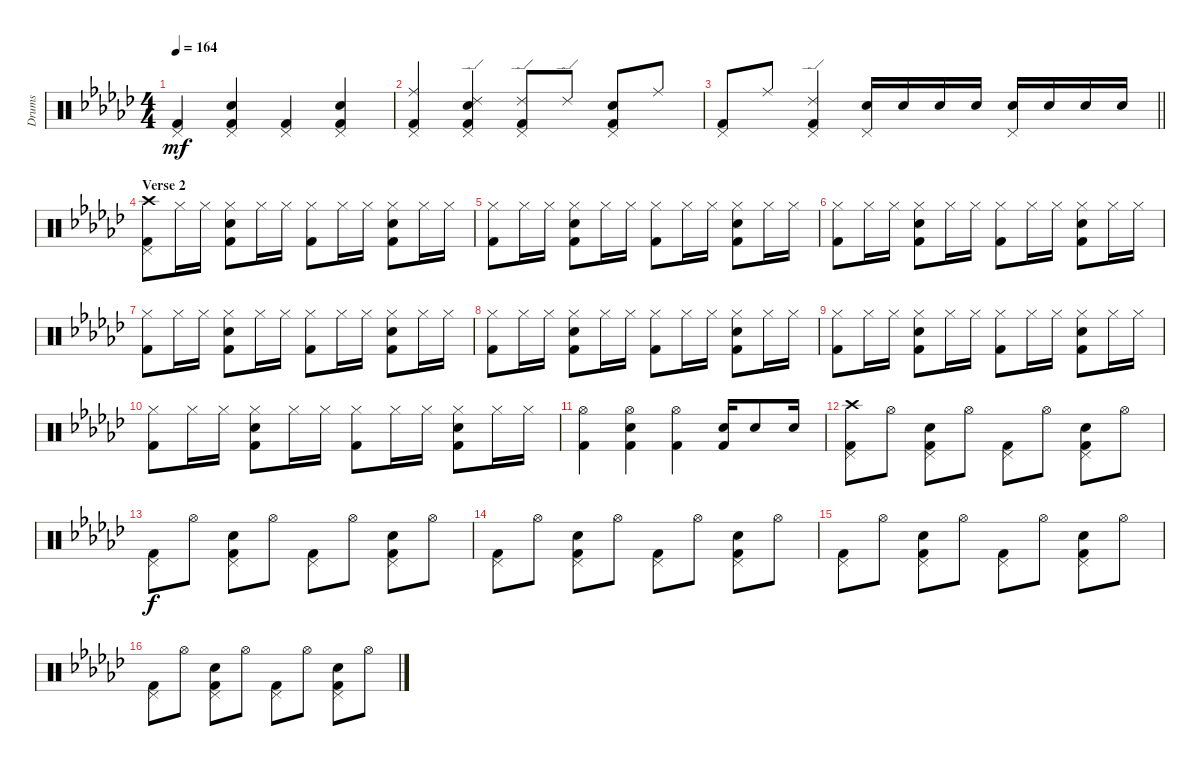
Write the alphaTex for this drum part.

\track ("Drums" "Drums") {instrument percussion}
\staff {score}
\articulation defaults
\ts (4 4)
\tempo 164
\clef neutral
\ks gb
("Pedal Hi-Hat (hit)" "Kick (hit) 2").4{dy mf} ("Snare (hit) 2" "Pedal Hi-Hat (hit)" "Kick (hit) 2").4 ("Pedal Hi-Hat (hit)" "Kick (hit) 2").4 ("Snare (hit) 2" "Pedal Hi-Hat (hit)" "Kick (hit) 2").4 |
("Ride (middle)" "Pedal Hi-Hat (hit)" "Kick (hit) 2").4 ("Ride (edge) 2" "Snare (hit) 2" "Pedal Hi-Hat (hit)" "Kick (hit) 2").4 ("Ride (edge) 2" "Pedal Hi-Hat (hit)" "Kick (hit) 2").8 "Ride (edge) 2".8 ("Snare (hit) 2" "Pedal Hi-Hat (hit)" "Kick (hit) 2").8 "Ride (middle)".8 |
\barLineRight lightlight
("Pedal Hi-Hat (hit)" "Kick (hit) 2").8 "Ride (middle)".8 ("Ride (edge) 2" "Pedal Hi-Hat (hit)" "Kick (hit) 2").4 ("Snare (hit) 2" "Pedal Hi-Hat (hit)").16 "Snare (hit) 2".16 "Snare (hit) 2".16 "Snare (hit) 2".16 ("Snare (hit) 2" "Pedal Hi-Hat (hit)").16 "Snare (hit) 2".16 "Snare (hit) 2".16 "Snare (hit) 2".16 |
\section ("" "Verse 2")
("Crash high (hit)" "Pedal Hi-Hat (hit)" "Kick (hit) 2").8 "Hi-Hat (closed)".16 "Hi-Hat (closed)".16 ("Hi-Hat (closed)" "Snare (hit) 2" "Kick (hit) 2").8 "Hi-Hat (closed)".16 "Hi-Hat (closed)".16 ("Hi-Hat (closed)" "Kick (hit) 2").8 "Hi-Hat (closed)".16 "Hi-Hat (closed)".16 ("Hi-Hat (closed)" "Snare (hit) 2" "Kick (hit) 2").8 "Hi-Hat (closed)".16 "Hi-Hat (closed)".16 |
("Hi-Hat (closed)" "Kick (hit) 2").8 "Hi-Hat (closed)".16 "Hi-Hat (closed)".16 ("Hi-Hat (closed)" "Snare (hit) 2" "Kick (hit) 2").8 "Hi-Hat (closed)".16 "Hi-Hat (closed)".16 ("Hi-Hat (closed)" "Kick (hit) 2").8 "Hi-Hat (closed)".16 "Hi-Hat (closed)".16 ("Hi-Hat (closed)" "Snare (hit) 2" "Kick (hit) 2").8 "Hi-Hat (closed)".16 "Hi-Hat (closed)".16 |
("Hi-Hat (closed)" "Kick (hit) 2").8 "Hi-Hat (closed)".16 "Hi-Hat (closed)".16 ("Hi-Hat (closed)" "Snare (hit) 2" "Kick (hit) 2").8 "Hi-Hat (closed)".16 "Hi-Hat (closed)".16 ("Hi-Hat (closed)" "Kick (hit) 2").8 "Hi-Hat (closed)".16 "Hi-Hat (closed)".16 ("Hi-Hat (closed)" "Snare (hit) 2" "Kick (hit) 2").8 "Hi-Hat (closed)".16 "Hi-Hat (closed)".16 |
("Hi-Hat (closed)" "Kick (hit) 2").8 "Hi-Hat (closed)".16 "Hi-Hat (closed)".16 ("Hi-Hat (closed)" "Snare (hit) 2" "Kick (hit) 2").8 "Hi-Hat (closed)".16 "Hi-Hat (closed)".16 ("Hi-Hat (closed)" "Kick (hit) 2").8 "Hi-Hat (closed)".16 "Hi-Hat (closed)".16 ("Hi-Hat (closed)" "Snare (hit) 2" "Kick (hit) 2").8 "Hi-Hat (closed)".16 "Hi-Hat (closed)".16 |
("Hi-Hat (closed)" "Kick (hit) 2").8 "Hi-Hat (closed)".16 "Hi-Hat (closed)".16 ("Hi-Hat (closed)" "Snare (hit) 2" "Kick (hit) 2").8 "Hi-Hat (closed)".16 "Hi-Hat (closed)".16 ("Hi-Hat (closed)" "Kick (hit) 2").8 "Hi-Hat (closed)".16 "Hi-Hat (closed)".16 ("Hi-Hat (closed)" "Snare (hit) 2" "Kick (hit) 2").8 "Hi-Hat (closed)".16 "Hi-Hat (closed)".16 |
("Hi-Hat (closed)" "Kick (hit) 2").8 "Hi-Hat (closed)".16 "Hi-Hat (closed)".16 ("Hi-Hat (closed)" "Snare (hit) 2" "Kick (hit) 2").8 "Hi-Hat (closed)".16 "Hi-Hat (closed)".16 ("Hi-Hat (closed)" "Kick (hit) 2").8 "Hi-Hat (closed)".16 "Hi-Hat (closed)".16 ("Hi-Hat (closed)" "Snare (hit) 2" "Kick (hit) 2").8 "Hi-Hat (closed)".16 "Hi-Hat (closed)".16 |
("Hi-Hat (closed)" "Kick (hit) 2").8 "Hi-Hat (closed)".16 "Hi-Hat (closed)".16 ("Hi-Hat (closed)" "Snare (hit) 2" "Kick (hit) 2").8 "Hi-Hat (closed)".16 "Hi-Hat (closed)".16 ("Hi-Hat (closed)" "Kick (hit) 2").8 "Hi-Hat (closed)".16 "Hi-Hat (closed)".16 ("Hi-Hat (closed)" "Snare (hit) 2" "Kick (hit) 2").8 "Hi-Hat (closed)".16 "Hi-Hat (closed)".16 |
("Hi-Hat (open)" "Kick (hit) 2").4 ("Hi-Hat (open)" "Snare (hit) 2" "Kick (hit) 2").4 ("Hi-Hat (open)" "Kick (hit) 2").4 ("Snare (hit) 2" "Kick (hit) 2").16 "Snare (hit) 2".8 "Snare (hit) 2".16 |
("Crash high (hit)" "Pedal Hi-Hat (hit)" "Kick (hit) 2").8 "Hi-Hat (open)".8 ("Snare (hit) 2" "Pedal Hi-Hat (hit)" "Kick (hit) 2").8 "Hi-Hat (open)".8 ("Pedal Hi-Hat (hit)" "Kick (hit) 2").8 "Hi-Hat (open)".8 ("Snare (hit) 2" "Pedal Hi-Hat (hit)" "Kick (hit) 2").8 "Hi-Hat (open)".8 |
("Pedal Hi-Hat (hit)" "Kick (hit) 2").8{dy f} "Hi-Hat (open)".8 ("Snare (hit) 2" "Pedal Hi-Hat (hit)" "Kick (hit) 2").8 "Hi-Hat (open)".8 ("Pedal Hi-Hat (hit)" "Kick (hit) 2").8 "Hi-Hat (open)".8 ("Snare (hit) 2" "Pedal Hi-Hat (hit)" "Kick (hit) 2").8 "Hi-Hat (open)".8 |
("Pedal Hi-Hat (hit)" "Kick (hit) 2").8 "Hi-Hat (open)".8 ("Snare (hit) 2" "Pedal Hi-Hat (hit)" "Kick (hit) 2").8 "Hi-Hat (open)".8 ("Pedal Hi-Hat (hit)" "Kick (hit) 2").8 "Hi-Hat (open)".8 ("Snare (hit) 2" "Pedal Hi-Hat (hit)" "Kick (hit) 2").8 "Hi-Hat (open)".8 |
("Pedal Hi-Hat (hit)" "Kick (hit) 2").8 "Hi-Hat (open)".8 ("Snare (hit) 2" "Pedal Hi-Hat (hit)" "Kick (hit) 2").8 "Hi-Hat (open)".8 ("Pedal Hi-Hat (hit)" "Kick (hit) 2").8 "Hi-Hat (open)".8 ("Snare (hit) 2" "Pedal Hi-Hat (hit)" "Kick (hit) 2").8 "Hi-Hat (open)".8 |
("Pedal Hi-Hat (hit)" "Kick (hit) 2").8 "Hi-Hat (open)".8 ("Snare (hit) 2" "Pedal Hi-Hat (hit)" "Kick (hit) 2").8 "Hi-Hat (open)".8 ("Pedal Hi-Hat (hit)" "Kick (hit) 2").8 "Hi-Hat (open)".8 ("Snare (hit) 2" "Pedal Hi-Hat (hit)" "Kick (hit) 2").8 "Hi-Hat (open)".8
